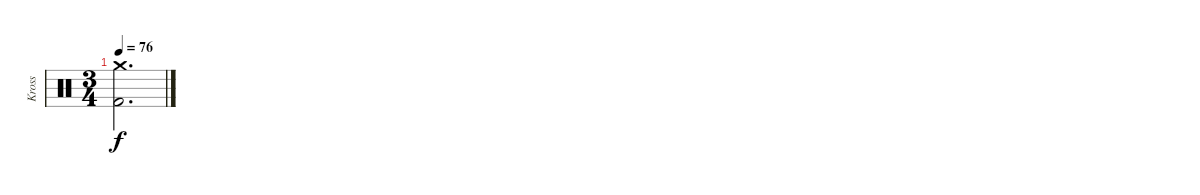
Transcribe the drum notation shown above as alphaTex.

\track ("Kross" "Kross") {instrument percussion}
\staff {score}
\articulation defaults
\ts (3 4)
\tempo 76
\clef neutral
\ks c
("Crash medium (hit)" "Kick (hit) 2").2{d dy f}
